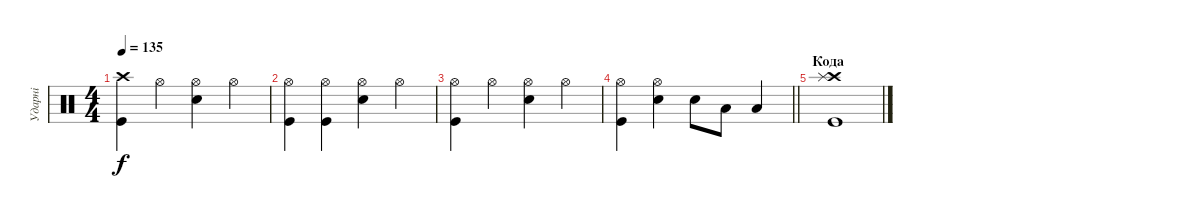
\track ("Ударні" "Ударні") {instrument percussion}
\staff {score}
\articulation defaults
\ts (4 4)
\tempo 135
\clef neutral
\ks c
("Crash high (hit)" "Kick (hit)").4{dy f} "Hi-Hat (open)".4 ("Snare (hit) 2" "Hi-Hat (open)").4 "Hi-Hat (open)".4 |
("Hi-Hat (open)" "Kick (hit)").4 ("Hi-Hat (open)" "Kick (hit)").4 ("Snare (hit) 2" "Hi-Hat (open)").4 "Hi-Hat (open)".4 |
("Hi-Hat (open)" "Kick (hit)").4 "Hi-Hat (open)".4 ("Snare (hit) 2" "Hi-Hat (open)").4 "Hi-Hat (open)".4 |
\barLineRight lightlight
("Hi-Hat (open)" "Kick (hit)").4 ("Snare (hit) 2" "Hi-Hat (open)").4 "Snare (hit) 2".8 "Low Tom (hit)".8 "Low Floor Tom (hit)".4 |
\section ("" "Кода")
("Crash high (hit)" "Splash (hit)" "Kick (hit)").1
